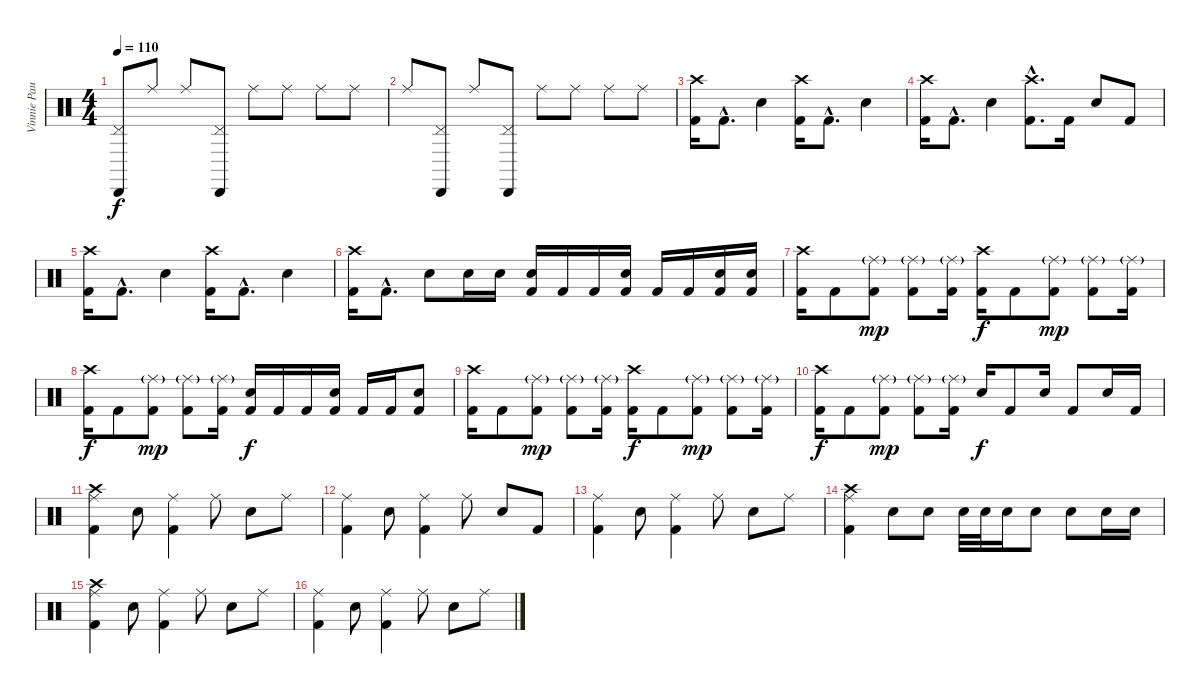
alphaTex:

\track ("Vinnie Paul" "Vinnie Pau") {instrument percussion}
\staff {score}
\articulation defaults
\ts (4 4)
\tempo 110
\clef neutral
\ks c
("Cabasa (hit)" "Pedal Hi-Hat (hit)").8{dy f} "Ride (middle)".8 "Ride (middle)".8 ("Cabasa (hit)" "Pedal Hi-Hat (hit)").8 "Ride (middle)".8 "Ride (middle)".8 "Ride (middle)".8 "Ride (middle)".8 |
"Ride (middle)".8 ("Cabasa (hit)" "Pedal Hi-Hat (hit)").8 "Ride (middle)".8 ("Cabasa (hit)" "Pedal Hi-Hat (hit)").8 "Ride (middle)".8 "Ride (middle)".8 "Ride (middle)".8 "Ride (middle)".8 |
("Crash high (hit)" "Kick (hit) 2").16 "Kick (hit) 2"{hac}.8{d} "Electric Snare (hit)".4 ("Crash high (hit)" "Kick (hit) 2").16 "Kick (hit) 2"{hac}.8{d} "Electric Snare (hit)".4 |
("Crash high (hit)" "Kick (hit) 2").16 "Kick (hit) 2"{hac}.8{d} "Electric Snare (hit)".4 ("Crash high (hit)"{hac} "Kick (hit) 2"{hac}).8{d} "Kick (hit) 2".16 "Electric Snare (hit)".8 "Kick (hit) 2".8 |
("Crash high (hit)" "Kick (hit) 2").16 "Kick (hit) 2"{hac}.8{d} "Electric Snare (hit)".4 ("Crash high (hit)" "Kick (hit) 2").16 "Kick (hit) 2"{hac}.8{d} "Electric Snare (hit)".4 |
("Crash high (hit)" "Kick (hit) 2").16 "Kick (hit) 2"{hac}.8{d} "Electric Snare (hit)".8 "Electric Snare (hit)".16 "Electric Snare (hit)".16 ("Electric Snare (hit)" "Kick (hit) 2").16 "Kick (hit) 2".16 "Kick (hit) 2".16 ("Electric Snare (hit)" "Kick (hit) 2").16 "Kick (hit) 2".16 "Kick (hit) 2".16 ("Electric Snare (hit)" "Kick (hit) 2").16 ("Electric Snare (hit)" "Kick (hit) 2").16 |
("Crash high (hit)" "Kick (hit) 2").16 "Kick (hit) 2".8 ("Ride (middle)"{g} "Kick (hit) 2").8{dy mp} ("Ride (middle)"{g} "Kick (hit) 2").8 ("Ride (middle)"{g} "Kick (hit) 2").16 ("Crash high (hit)" "Kick (hit) 2").16{dy f} "Kick (hit) 2".8 ("Ride (middle)"{g} "Kick (hit) 2").8{dy mp} ("Ride (middle)"{g} "Kick (hit) 2").8 ("Ride (middle)"{g} "Kick (hit) 2").16 |
("Crash high (hit)" "Kick (hit) 2").16{dy f} "Kick (hit) 2".8 ("Ride (middle)"{g} "Kick (hit) 2").8{dy mp} ("Ride (middle)"{g} "Kick (hit) 2").8 ("Ride (middle)"{g} "Kick (hit) 2").16 ("Electric Snare (hit)" "Kick (hit) 2").16{dy f} "Kick (hit) 2".16 "Kick (hit) 2".16 ("Electric Snare (hit)" "Kick (hit) 2").16 "Kick (hit) 2".16 "Kick (hit) 2".16 ("Electric Snare (hit)" "Kick (hit) 2").8 |
("Crash high (hit)" "Kick (hit) 2").16 "Kick (hit) 2".8 ("Ride (middle)"{g} "Kick (hit) 2").8{dy mp} ("Ride (middle)"{g} "Kick (hit) 2").8 ("Ride (middle)"{g} "Kick (hit) 2").16 ("Crash high (hit)" "Kick (hit) 2").16{dy f} "Kick (hit) 2".8 ("Ride (middle)"{g} "Kick (hit) 2").8{dy mp} ("Ride (middle)"{g} "Kick (hit) 2").8 ("Ride (middle)"{g} "Kick (hit) 2").16 |
("Crash high (hit)" "Kick (hit) 2").16{dy f} "Kick (hit) 2".8 ("Ride (middle)"{g} "Kick (hit) 2").8{dy mp} ("Ride (middle)"{g} "Kick (hit) 2").8 ("Ride (middle)"{g} "Kick (hit) 2").16 "Electric Snare (hit)".16{dy f} "Kick (hit) 2".8 "Electric Snare (hit)".16 "Kick (hit) 2".8 "Electric Snare (hit)".16 "Kick (hit) 2".16 |
("Crash high (hit)" "Ride (middle)" "Kick (hit) 2").4 "Electric Snare (hit)".8 ("Ride (middle)" "Kick (hit) 2").4 "Ride (middle)".8 "Electric Snare (hit)".8 "Ride (middle)".8 |
("Ride (middle)" "Kick (hit) 2").4 "Electric Snare (hit)".8 ("Ride (middle)" "Kick (hit) 2").4 "Ride (middle)".8 "Electric Snare (hit)".8 "Kick (hit) 2".8 |
("Ride (middle)" "Kick (hit) 2").4 "Electric Snare (hit)".8 ("Ride (middle)" "Kick (hit) 2").4 "Ride (middle)".8 "Electric Snare (hit)".8 "Ride (middle)".8 |
("Crash high (hit)" "Ride (middle)" "Kick (hit) 2").4 "Electric Snare (hit)".8 "Electric Snare (hit)".8 "Electric Snare (hit)".32 "Electric Snare (hit)".32 "Electric Snare (hit)".16 "Electric Snare (hit)".8 "Electric Snare (hit)".8 "Electric Snare (hit)".16 "Electric Snare (hit)".16 |
("Crash high (hit)" "Ride (middle)" "Kick (hit) 2").4 "Electric Snare (hit)".8 ("Ride (middle)" "Kick (hit) 2").4 "Ride (middle)".8 "Electric Snare (hit)".8 "Ride (middle)".8 |
("Ride (middle)" "Kick (hit) 2").4 "Electric Snare (hit)".8 ("Ride (middle)" "Kick (hit) 2").4 "Ride (middle)".8 "Electric Snare (hit)".8 "Ride (middle)".8
